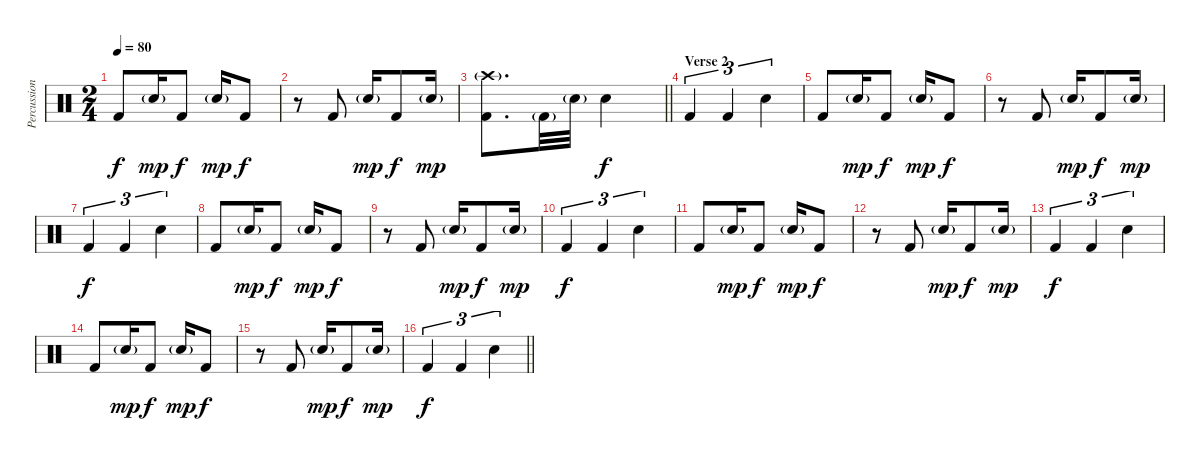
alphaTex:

\track ("Percussion" "Percussion") {solo instrument percussion}
\staff {score}
\articulation defaults
\ts (2 4)
\tempo 80
\clef neutral
\ks c "Kick (hit) 2".8{dy f} "Snare (hit) 2"{g}.16{dy mp} "Kick (hit) 2".8{dy f} "Snare (hit) 2"{g}.16{dy mp} "Kick (hit) 2".8{dy f}
|
r.8 "Kick (hit) 2".8 "Snare (hit) 2"{g}.16{dy mp} "Kick (hit) 2".8{dy f} "Snare (hit) 2"{g}.16{dy mp} |
\barLineRight lightlight
("Crash high (hit)"{g} "Kick (hit) 2").8{d} "Kick (hit) 2"{g}.32 "Snare (hit) 2"{g}.32 "Snare (hit) 2".4{dy f} |
\section ("" "Verse 2")
"Kick (hit) 2".4{tu (3 2)} "Kick (hit) 2".4{tu (3 2)} "Snare (hit) 2".4{tu (3 2)} |
"Kick (hit) 2".8 "Snare (hit) 2"{g}.16{dy mp} "Kick (hit) 2".8{dy f} "Snare (hit) 2"{g}.16{dy mp} "Kick (hit) 2".8{dy f} |
r.8 "Kick (hit) 2".8 "Snare (hit) 2"{g}.16{dy mp} "Kick (hit) 2".8{dy f} "Snare (hit) 2"{g}.16{dy mp} |
"Kick (hit) 2".4{tu (3 2) dy f} "Kick (hit) 2".4{tu (3 2)} "Snare (hit) 2".4{tu (3 2)} |
"Kick (hit) 2".8 "Snare (hit) 2"{g}.16{dy mp} "Kick (hit) 2".8{dy f} "Snare (hit) 2"{g}.16{dy mp} "Kick (hit) 2".8{dy f} |
r.8 "Kick (hit) 2".8 "Snare (hit) 2"{g}.16{dy mp} "Kick (hit) 2".8{dy f} "Snare (hit) 2"{g}.16{dy mp} |
"Kick (hit) 2".4{tu (3 2) dy f} "Kick (hit) 2".4{tu (3 2)} "Snare (hit) 2".4{tu (3 2)} |
"Kick (hit) 2".8 "Snare (hit) 2"{g}.16{dy mp} "Kick (hit) 2".8{dy f} "Snare (hit) 2"{g}.16{dy mp} "Kick (hit) 2".8{dy f} |
r.8 "Kick (hit) 2".8 "Snare (hit) 2"{g}.16{dy mp} "Kick (hit) 2".8{dy f} "Snare (hit) 2"{g}.16{dy mp} |
"Kick (hit) 2".4{tu (3 2) dy f} "Kick (hit) 2".4{tu (3 2)} "Snare (hit) 2".4{tu (3 2)} |
"Kick (hit) 2".8 "Snare (hit) 2"{g}.16{dy mp} "Kick (hit) 2".8{dy f} "Snare (hit) 2"{g}.16{dy mp} "Kick (hit) 2".8{dy f} |
r.8 "Kick (hit) 2".8 "Snare (hit) 2"{g}.16{dy mp} "Kick (hit) 2".8{dy f} "Snare (hit) 2"{g}.16{dy mp} |
\barLineRight lightlight "Kick (hit) 2".4{tu (3 2) dy f} "Kick (hit) 2".4{tu (3 2)} "Snare (hit) 2".4{tu (3 2)}
